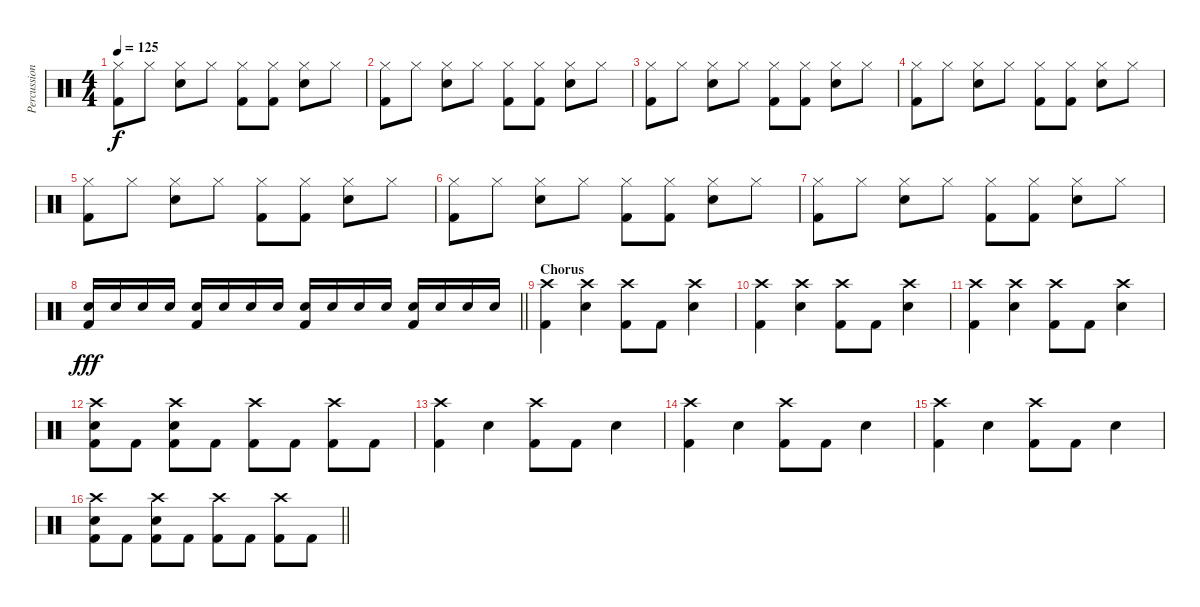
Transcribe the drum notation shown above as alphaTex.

\track ("Percussion" "Percussion") {instrument percussion}
\staff {score}
\articulation defaults
\ts (4 4)
\tempo 125
\clef neutral
\ks c
("Hi-Hat (closed)" "Kick (hit) 2").8{dy f} "Hi-Hat (closed)".8 ("Hi-Hat (closed)" "Electric Snare (hit)").8 "Hi-Hat (closed)".8 ("Hi-Hat (closed)" "Kick (hit) 2").8 ("Hi-Hat (closed)" "Kick (hit) 2").8 ("Hi-Hat (closed)" "Electric Snare (hit)").8 "Hi-Hat (closed)".8 |
("Hi-Hat (closed)" "Kick (hit) 2").8 "Hi-Hat (closed)".8 ("Hi-Hat (closed)" "Electric Snare (hit)").8 "Hi-Hat (closed)".8 ("Hi-Hat (closed)" "Kick (hit) 2").8 ("Hi-Hat (closed)" "Kick (hit) 2").8 ("Hi-Hat (closed)" "Electric Snare (hit)").8 "Hi-Hat (closed)".8 |
("Hi-Hat (closed)" "Kick (hit) 2").8 "Hi-Hat (closed)".8 ("Hi-Hat (closed)" "Electric Snare (hit)").8 "Hi-Hat (closed)".8 ("Hi-Hat (closed)" "Kick (hit) 2").8 ("Hi-Hat (closed)" "Kick (hit) 2").8 ("Hi-Hat (closed)" "Electric Snare (hit)").8 "Hi-Hat (closed)".8 |
("Hi-Hat (closed)" "Kick (hit) 2").8 "Hi-Hat (closed)".8 ("Hi-Hat (closed)" "Electric Snare (hit)").8 "Hi-Hat (closed)".8 ("Hi-Hat (closed)" "Kick (hit) 2").8 ("Hi-Hat (closed)" "Kick (hit) 2").8 ("Hi-Hat (closed)" "Electric Snare (hit)").8 "Hi-Hat (closed)".8 |
("Hi-Hat (closed)" "Kick (hit) 2").8 "Hi-Hat (closed)".8 ("Hi-Hat (closed)" "Electric Snare (hit)").8 "Hi-Hat (closed)".8 ("Hi-Hat (closed)" "Kick (hit) 2").8 ("Hi-Hat (closed)" "Kick (hit) 2").8 ("Hi-Hat (closed)" "Electric Snare (hit)").8 "Hi-Hat (closed)".8 |
("Hi-Hat (closed)" "Kick (hit) 2").8 "Hi-Hat (closed)".8 ("Hi-Hat (closed)" "Electric Snare (hit)").8 "Hi-Hat (closed)".8 ("Hi-Hat (closed)" "Kick (hit) 2").8 ("Hi-Hat (closed)" "Kick (hit) 2").8 ("Hi-Hat (closed)" "Electric Snare (hit)").8 "Hi-Hat (closed)".8 |
("Hi-Hat (closed)" "Kick (hit) 2").8 "Hi-Hat (closed)".8 ("Hi-Hat (closed)" "Electric Snare (hit)").8 "Hi-Hat (closed)".8 ("Hi-Hat (closed)" "Kick (hit) 2").8 ("Hi-Hat (closed)" "Kick (hit) 2").8 ("Hi-Hat (closed)" "Electric Snare (hit)").8 "Hi-Hat (closed)".8 |
\barLineRight lightlight
("Electric Snare (hit)" "Kick (hit) 2").16{dy fff} "Electric Snare (hit)".16 "Electric Snare (hit)".16 "Electric Snare (hit)".16 ("Electric Snare (hit)" "Kick (hit) 2").16 "Electric Snare (hit)".16 "Electric Snare (hit)".16 "Electric Snare (hit)".16 ("Electric Snare (hit)" "Kick (hit) 2").16 "Electric Snare (hit)".16 "Electric Snare (hit)".16 "Electric Snare (hit)".16 ("Electric Snare (hit)" "Kick (hit) 2").16 "Electric Snare (hit)".16 "Electric Snare (hit)".16 "Electric Snare (hit)".16 |
\section ("" "Chorus")
("Crash high (hit)" "Kick (hit) 2").4 ("Crash high (hit)" "Electric Snare (hit)").4 ("Crash high (hit)" "Kick (hit) 2").8 "Kick (hit) 2".8 ("Crash high (hit)" "Electric Snare (hit)").4 |
("Crash high (hit)" "Kick (hit) 2").4 ("Crash high (hit)" "Electric Snare (hit)").4 ("Crash high (hit)" "Kick (hit) 2").8 "Kick (hit) 2".8 ("Crash high (hit)" "Electric Snare (hit)").4 |
("Crash high (hit)" "Kick (hit) 2").4 ("Crash high (hit)" "Electric Snare (hit)").4 ("Crash high (hit)" "Kick (hit) 2").8 "Kick (hit) 2".8 ("Crash high (hit)" "Electric Snare (hit)").4 |
("Crash high (hit)" "Electric Snare (hit)" "Kick (hit) 2").8 "Kick (hit) 2".8 ("Crash high (hit)" "Electric Snare (hit)" "Kick (hit) 2").8 "Kick (hit) 2".8 ("Crash high (hit)" "Kick (hit) 2").8 "Kick (hit) 2".8 ("Crash high (hit)" "Kick (hit) 2").8 "Kick (hit) 2".8 |
("Crash high (hit)" "Kick (hit) 2").4 "Electric Snare (hit)".4 ("Crash high (hit)" "Kick (hit) 2").8 "Kick (hit) 2".8 "Electric Snare (hit)".4 |
("Crash high (hit)" "Kick (hit) 2").4 "Electric Snare (hit)".4 ("Crash high (hit)" "Kick (hit) 2").8 "Kick (hit) 2".8 "Electric Snare (hit)".4 |
("Crash high (hit)" "Kick (hit) 2").4 "Electric Snare (hit)".4 ("Crash high (hit)" "Kick (hit) 2").8 "Kick (hit) 2".8 "Electric Snare (hit)".4 |
\barLineRight lightlight
("Crash high (hit)" "Electric Snare (hit)" "Kick (hit) 2").8 "Kick (hit) 2".8 ("Crash high (hit)" "Electric Snare (hit)" "Kick (hit) 2").8 "Kick (hit) 2".8 ("Crash high (hit)" "Kick (hit) 2").8 "Kick (hit) 2".8 ("Crash high (hit)" "Kick (hit) 2").8 "Kick (hit) 2".8
